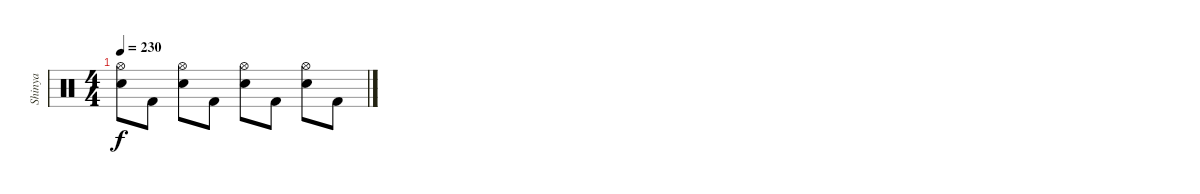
\track ("Shinya" "Shinya") {instrument percussion}
\staff {score}
\articulation defaults
\ts (4 4)
\tempo 230
\clef neutral
\ks c
("Hi-Hat (open)" "Electric Snare (hit)").8{dy f} "Kick (hit) 2".8 ("Hi-Hat (open)" "Electric Snare (hit)").8 "Kick (hit) 2".8 ("Hi-Hat (open)" "Electric Snare (hit)").8 "Kick (hit) 2".8 ("Hi-Hat (open)" "Electric Snare (hit)").8 "Kick (hit) 2".8
